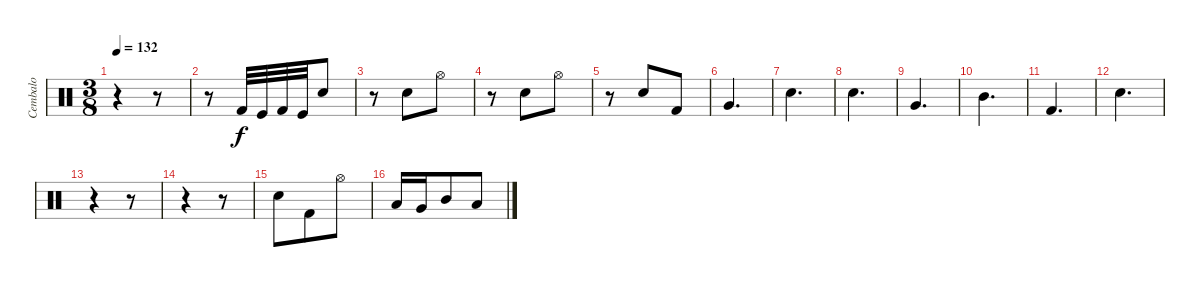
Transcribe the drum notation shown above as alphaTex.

\track ("Cembalo" "Cembalo") {instrument percussion}
\staff {score}
\articulation defaults
\ts (3 8)
\tempo 132
\tempo 65
\tempo 132
\clef neutral
\ks c
r.4{dy f} r.8 |
r.8 "Kick (hit) 2".32 "Kick (hit)".32 "Kick (hit) 2".32 "Kick (hit)".32 "Snare (hit) 2".8 |
r.8 "Snare (hit) 2".8 "Hi-Hat (open)".8 |
r.8 "Snare (hit) 2".8 "Hi-Hat (open)".8 |
r.8 "Snare (hit) 2".8 "Kick (hit) 2".8 |
"Very Low Tom (hit)".4{d} |
"Snare (hit) 2".4{d} |
"Snare (hit) 2".4{d} |
"Very Low Tom (hit)".4{d} |
"Mid Tom (hit)".4{d} |
"Kick (hit) 2".4{d} |
"Snare (hit) 2".4{d} |
r.4 r.8 |
r.4 r.8 |
"Snare (hit) 2".8 "Kick (hit) 2".8 "Hi-Hat (open)".8 |
"Low Tom (hit)".16 "Very Low Tom (hit)".16 "Mid Tom (hit)".8 "Low Floor Tom (hit)".8
